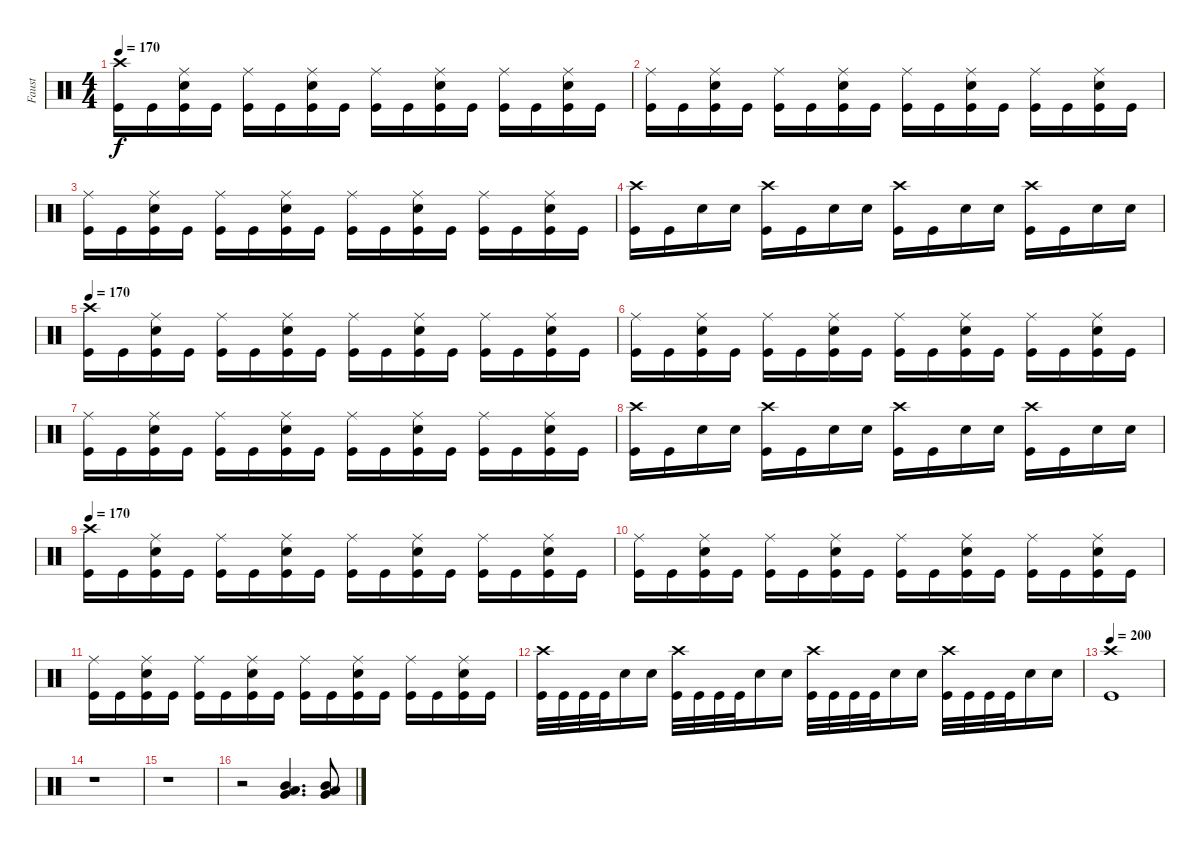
\track ("Faust" "Faust") {instrument percussion}
\staff {score}
\articulation defaults
\ts (4 4)
\tempo 170
\clef neutral
\ks c
("Kick (hit)" "Crash high (hit)").16{dy f} "Kick (hit)".16 ("Kick (hit)" "Snare (hit) 2" "Ride (middle)").16 "Kick (hit)".16 ("Kick (hit)" "Ride (middle)").16 "Kick (hit)".16 ("Kick (hit)" "Snare (hit) 2" "Ride (middle)").16 "Kick (hit)".16 ("Kick (hit)" "Ride (middle)").16 "Kick (hit)".16 ("Kick (hit)" "Snare (hit) 2" "Ride (middle)").16 "Kick (hit)".16 ("Kick (hit)" "Ride (middle)").16 "Kick (hit)".16 ("Kick (hit)" "Snare (hit) 2" "Ride (middle)").16 "Kick (hit)".16 |
("Kick (hit)" "Ride (middle)").16 "Kick (hit)".16 ("Kick (hit)" "Snare (hit) 2" "Ride (middle)").16 "Kick (hit)".16 ("Kick (hit)" "Ride (middle)").16 "Kick (hit)".16 ("Kick (hit)" "Snare (hit) 2" "Ride (middle)").16 "Kick (hit)".16 ("Kick (hit)" "Ride (middle)").16 "Kick (hit)".16 ("Kick (hit)" "Snare (hit) 2" "Ride (middle)").16 "Kick (hit)".16 ("Kick (hit)" "Ride (middle)").16 "Kick (hit)".16 ("Kick (hit)" "Snare (hit) 2" "Ride (middle)").16 "Kick (hit)".16 |
("Kick (hit)" "Ride (middle)").16 "Kick (hit)".16 ("Kick (hit)" "Snare (hit) 2" "Ride (middle)").16 "Kick (hit)".16 ("Kick (hit)" "Ride (middle)").16 "Kick (hit)".16 ("Kick (hit)" "Snare (hit) 2" "Ride (middle)").16 "Kick (hit)".16 ("Kick (hit)" "Ride (middle)").16 "Kick (hit)".16 ("Kick (hit)" "Snare (hit) 2" "Ride (middle)").16 "Kick (hit)".16 ("Kick (hit)" "Ride (middle)").16 "Kick (hit)".16 ("Kick (hit)" "Snare (hit) 2" "Ride (middle)").16 "Kick (hit)".16 |
("Kick (hit)" "Crash high (hit)").16 "Kick (hit)".16 "Snare (hit) 2".16 "Snare (hit) 2".16 ("Kick (hit)" "Crash high (hit)").16 "Kick (hit)".16 "Snare (hit) 2".16 "Snare (hit) 2".16 ("Kick (hit)" "Crash high (hit)").16 "Kick (hit)".16 "Snare (hit) 2".16 "Snare (hit) 2".16 ("Kick (hit)" "Crash high (hit)").16 "Kick (hit)".16 "Snare (hit) 2".16 "Snare (hit) 2".16 |
\tempo 170
("Kick (hit)" "Crash high (hit)").16 "Kick (hit)".16 ("Kick (hit)" "Snare (hit) 2" "Ride (middle)").16 "Kick (hit)".16 ("Kick (hit)" "Ride (middle)").16 "Kick (hit)".16 ("Kick (hit)" "Snare (hit) 2" "Ride (middle)").16 "Kick (hit)".16 ("Kick (hit)" "Ride (middle)").16 "Kick (hit)".16 ("Kick (hit)" "Snare (hit) 2" "Ride (middle)").16 "Kick (hit)".16 ("Kick (hit)" "Ride (middle)").16 "Kick (hit)".16 ("Kick (hit)" "Snare (hit) 2" "Ride (middle)").16 "Kick (hit)".16 |
("Kick (hit)" "Ride (middle)").16 "Kick (hit)".16 ("Kick (hit)" "Snare (hit) 2" "Ride (middle)").16 "Kick (hit)".16 ("Kick (hit)" "Ride (middle)").16 "Kick (hit)".16 ("Kick (hit)" "Snare (hit) 2" "Ride (middle)").16 "Kick (hit)".16 ("Kick (hit)" "Ride (middle)").16 "Kick (hit)".16 ("Kick (hit)" "Snare (hit) 2" "Ride (middle)").16 "Kick (hit)".16 ("Kick (hit)" "Ride (middle)").16 "Kick (hit)".16 ("Kick (hit)" "Snare (hit) 2" "Ride (middle)").16 "Kick (hit)".16 |
("Kick (hit)" "Ride (middle)").16 "Kick (hit)".16 ("Kick (hit)" "Snare (hit) 2" "Ride (middle)").16 "Kick (hit)".16 ("Kick (hit)" "Ride (middle)").16 "Kick (hit)".16 ("Kick (hit)" "Snare (hit) 2" "Ride (middle)").16 "Kick (hit)".16 ("Kick (hit)" "Ride (middle)").16 "Kick (hit)".16 ("Kick (hit)" "Snare (hit) 2" "Ride (middle)").16 "Kick (hit)".16 ("Kick (hit)" "Ride (middle)").16 "Kick (hit)".16 ("Kick (hit)" "Snare (hit) 2" "Ride (middle)").16 "Kick (hit)".16 |
("Kick (hit)" "Crash high (hit)").16 "Kick (hit)".16 "Snare (hit) 2".16 "Snare (hit) 2".16 ("Kick (hit)" "Crash high (hit)").16 "Kick (hit)".16 "Snare (hit) 2".16 "Snare (hit) 2".16 ("Kick (hit)" "Crash high (hit)").16 "Kick (hit)".16 "Snare (hit) 2".16 "Snare (hit) 2".16 ("Kick (hit)" "Crash high (hit)").16 "Kick (hit)".16 "Snare (hit) 2".16 "Snare (hit) 2".16 |
\tempo 170
("Kick (hit)" "Crash high (hit)").16 "Kick (hit)".16 ("Kick (hit)" "Snare (hit) 2" "Ride (middle)").16 "Kick (hit)".16 ("Kick (hit)" "Ride (middle)").16 "Kick (hit)".16 ("Kick (hit)" "Snare (hit) 2" "Ride (middle)").16 "Kick (hit)".16 ("Kick (hit)" "Ride (middle)").16 "Kick (hit)".16 ("Kick (hit)" "Snare (hit) 2" "Ride (middle)").16 "Kick (hit)".16 ("Kick (hit)" "Ride (middle)").16 "Kick (hit)".16 ("Kick (hit)" "Snare (hit) 2" "Ride (middle)").16 "Kick (hit)".16 |
("Kick (hit)" "Ride (middle)").16 "Kick (hit)".16 ("Kick (hit)" "Snare (hit) 2" "Ride (middle)").16 "Kick (hit)".16 ("Kick (hit)" "Ride (middle)").16 "Kick (hit)".16 ("Kick (hit)" "Snare (hit) 2" "Ride (middle)").16 "Kick (hit)".16 ("Kick (hit)" "Ride (middle)").16 "Kick (hit)".16 ("Kick (hit)" "Snare (hit) 2" "Ride (middle)").16 "Kick (hit)".16 ("Kick (hit)" "Ride (middle)").16 "Kick (hit)".16 ("Kick (hit)" "Snare (hit) 2" "Ride (middle)").16 "Kick (hit)".16 |
("Kick (hit)" "Ride (middle)").16 "Kick (hit)".16 ("Kick (hit)" "Snare (hit) 2" "Ride (middle)").16 "Kick (hit)".16 ("Kick (hit)" "Ride (middle)").16 "Kick (hit)".16 ("Kick (hit)" "Snare (hit) 2" "Ride (middle)").16 "Kick (hit)".16 ("Kick (hit)" "Ride (middle)").16 "Kick (hit)".16 ("Kick (hit)" "Snare (hit) 2" "Ride (middle)").16 "Kick (hit)".16 ("Kick (hit)" "Ride (middle)").16 "Kick (hit)".16 ("Kick (hit)" "Snare (hit) 2" "Ride (middle)").16 "Kick (hit)".16 |
("Kick (hit)" "Crash high (hit)").32 "Kick (hit)".32 "Kick (hit)".32 "Kick (hit)".32 "Snare (hit) 2".16 "Snare (hit) 2".16 ("Kick (hit)" "Crash high (hit)").32 "Kick (hit)".32 "Kick (hit)".32 "Kick (hit)".32 "Snare (hit) 2".16 "Snare (hit) 2".16 ("Kick (hit)" "Crash high (hit)").32 "Kick (hit)".32 "Kick (hit)".32 "Kick (hit)".32 "Snare (hit) 2".16 "Snare (hit) 2".16 ("Kick (hit)" "Crash high (hit)").32 "Kick (hit)".32 "Kick (hit)".32 "Kick (hit)".32 "Snare (hit) 2".16 "Snare (hit) 2".16 |
\tempo 200
("Kick (hit)" "Crash high (hit)").1 |
r.1 |
r.1 |
r.2 ("Mid Tom (hit)" "Low Tom (hit)" "Very Low Tom (hit)").4{d} ("Mid Tom (hit)" "Low Tom (hit)" "Very Low Tom (hit)").8
